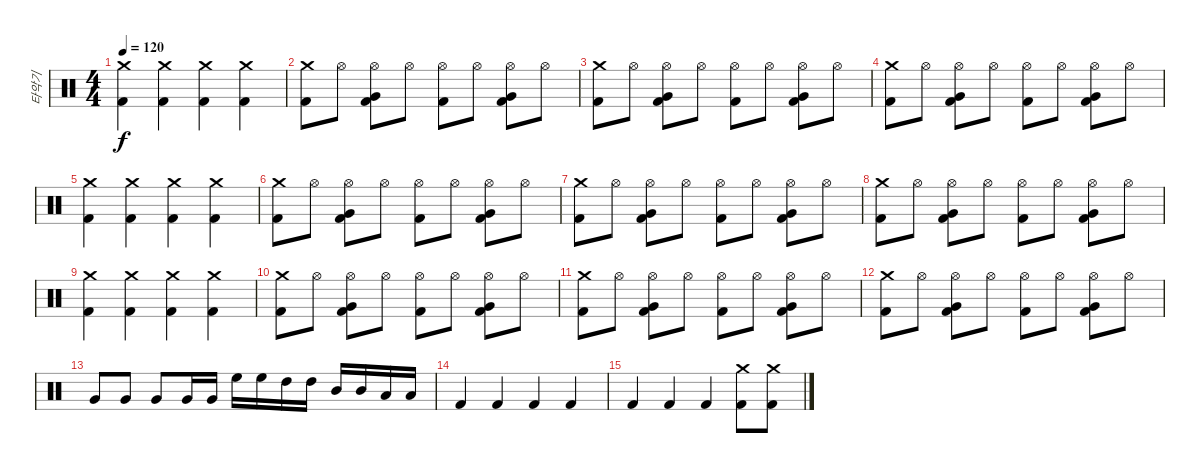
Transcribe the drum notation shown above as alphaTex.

\track ("타악기" "타악기") {instrument percussion}
\staff {score}
\articulation defaults
\ts (4 4)
\tempo 120
\clef neutral
\ks c
("Kick (hit) 2" "Crash medium (hit)").4{dy f} ("Kick (hit) 2" "Crash medium (hit)").4 ("Kick (hit) 2" "Crash medium (hit)").4 ("Kick (hit) 2" "Crash medium (hit)").4 |
("Kick (hit) 2" "Crash medium (hit)").8 "Hi-Hat (open)".8 ("Kick (hit) 2" "Very Low Tom (hit)" "Hi-Hat (open)").8 "Hi-Hat (open)".8 ("Kick (hit) 2" "Hi-Hat (open)").8 "Hi-Hat (open)".8 ("Kick (hit) 2" "Very Low Tom (hit)" "Hi-Hat (open)").8 "Hi-Hat (open)".8 |
("Kick (hit) 2" "Crash medium (hit)").8 "Hi-Hat (open)".8 ("Kick (hit) 2" "Very Low Tom (hit)" "Hi-Hat (open)").8 "Hi-Hat (open)".8 ("Kick (hit) 2" "Hi-Hat (open)").8 "Hi-Hat (open)".8 ("Kick (hit) 2" "Very Low Tom (hit)" "Hi-Hat (open)").8 "Hi-Hat (open)".8 |
("Kick (hit) 2" "Crash medium (hit)").8 "Hi-Hat (open)".8 ("Kick (hit) 2" "Very Low Tom (hit)" "Hi-Hat (open)").8 "Hi-Hat (open)".8 ("Kick (hit) 2" "Hi-Hat (open)").8 "Hi-Hat (open)".8 ("Kick (hit) 2" "Very Low Tom (hit)" "Hi-Hat (open)").8 "Hi-Hat (open)".8 |
("Kick (hit) 2" "Crash medium (hit)").4 ("Kick (hit) 2" "Crash medium (hit)").4 ("Kick (hit) 2" "Crash medium (hit)").4 ("Kick (hit) 2" "Crash medium (hit)").4 |
("Kick (hit) 2" "Crash medium (hit)").8 "Hi-Hat (open)".8 ("Kick (hit) 2" "Very Low Tom (hit)" "Hi-Hat (open)").8 "Hi-Hat (open)".8 ("Kick (hit) 2" "Hi-Hat (open)").8 "Hi-Hat (open)".8 ("Kick (hit) 2" "Very Low Tom (hit)" "Hi-Hat (open)").8 "Hi-Hat (open)".8 |
("Kick (hit) 2" "Crash medium (hit)").8 "Hi-Hat (open)".8 ("Kick (hit) 2" "Very Low Tom (hit)" "Hi-Hat (open)").8 "Hi-Hat (open)".8 ("Kick (hit) 2" "Hi-Hat (open)").8 "Hi-Hat (open)".8 ("Kick (hit) 2" "Very Low Tom (hit)" "Hi-Hat (open)").8 "Hi-Hat (open)".8 |
("Kick (hit) 2" "Crash medium (hit)").8 "Hi-Hat (open)".8 ("Kick (hit) 2" "Very Low Tom (hit)" "Hi-Hat (open)").8 "Hi-Hat (open)".8 ("Kick (hit) 2" "Hi-Hat (open)").8 "Hi-Hat (open)".8 ("Kick (hit) 2" "Very Low Tom (hit)" "Hi-Hat (open)").8 "Hi-Hat (open)".8 |
("Kick (hit) 2" "Crash medium (hit)").4 ("Kick (hit) 2" "Crash medium (hit)").4 ("Kick (hit) 2" "Crash medium (hit)").4 ("Kick (hit) 2" "Crash medium (hit)").4 |
("Kick (hit) 2" "Crash medium (hit)").8 "Hi-Hat (open)".8 ("Kick (hit) 2" "Very Low Tom (hit)" "Hi-Hat (open)").8 "Hi-Hat (open)".8 ("Kick (hit) 2" "Hi-Hat (open)").8 "Hi-Hat (open)".8 ("Kick (hit) 2" "Very Low Tom (hit)" "Hi-Hat (open)").8 "Hi-Hat (open)".8 |
("Kick (hit) 2" "Crash medium (hit)").8 "Hi-Hat (open)".8 ("Kick (hit) 2" "Very Low Tom (hit)" "Hi-Hat (open)").8 "Hi-Hat (open)".8 ("Kick (hit) 2" "Hi-Hat (open)").8 "Hi-Hat (open)".8 ("Kick (hit) 2" "Very Low Tom (hit)" "Hi-Hat (open)").8 "Hi-Hat (open)".8 |
("Kick (hit) 2" "Crash medium (hit)").8 "Hi-Hat (open)".8 ("Kick (hit) 2" "Very Low Tom (hit)" "Hi-Hat (open)").8 "Hi-Hat (open)".8 ("Kick (hit) 2" "Hi-Hat (open)").8 "Hi-Hat (open)".8 ("Kick (hit) 2" "Very Low Tom (hit)" "Hi-Hat (open)").8 "Hi-Hat (open)".8 |
"Very Low Tom (hit)".8 "Very Low Tom (hit)".8 "Very Low Tom (hit)".8 "Very Low Tom (hit)".16 "Very Low Tom (hit)".16 "High Floor Tom (hit)".16 "High Floor Tom (hit)".16 "High Tom (hit)".16 "High Tom (hit)".16 "Mid Tom (hit)".16 "Mid Tom (hit)".16 "Low Tom (hit)".16 "Low Tom (hit)".16 |
"Kick (hit) 2".4 "Kick (hit) 2".4 "Kick (hit) 2".4 "Kick (hit) 2".4 |
"Kick (hit) 2".4 "Kick (hit) 2".4 "Kick (hit) 2".4 ("Kick (hit) 2" "Crash medium (hit)").8 ("Kick (hit) 2" "Crash medium (hit)").8
